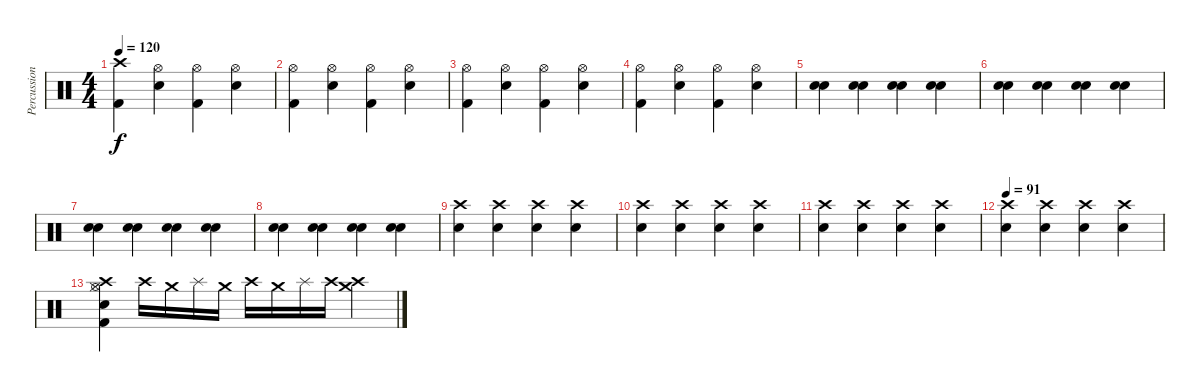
\track ("Percussion" "Percussion") {instrument percussion}
\staff {score}
\articulation defaults
\ts (4 4)
\tempo 120
\clef neutral
\ks c
("Crash high (hit)" "Kick (hit) 2").4{dy f} ("Hi-Hat (open)" "Snare (hit) 2").4 ("Hi-Hat (open)" "Kick (hit) 2").4 ("Hi-Hat (open)" "Snare (hit) 2").4 |
("Hi-Hat (open)" "Kick (hit) 2").4 ("Hi-Hat (open)" "Snare (hit) 2").4 ("Hi-Hat (open)" "Kick (hit) 2").4 ("Hi-Hat (open)" "Snare (hit) 2").4 |
("Hi-Hat (open)" "Kick (hit) 2").4 ("Hi-Hat (open)" "Snare (hit) 2").4 ("Hi-Hat (open)" "Kick (hit) 2").4 ("Hi-Hat (open)" "Snare (hit) 2").4 |
("Hi-Hat (open)" "Kick (hit) 2").4 ("Hi-Hat (open)" "Snare (hit) 2").4 ("Hi-Hat (open)" "Kick (hit) 2").4 ("Hi-Hat (open)" "Snare (hit) 2").4 |
("Snare (hit) 2" "Snare (hit) 2").4 ("Snare (hit) 2" "Snare (hit) 2").4 ("Snare (hit) 2" "Snare (hit) 2").4 ("Snare (hit) 2" "Snare (hit) 2").4 |
("Snare (hit) 2" "Snare (hit) 2").4 ("Snare (hit) 2" "Snare (hit) 2").4 ("Snare (hit) 2" "Snare (hit) 2").4 ("Snare (hit) 2" "Snare (hit) 2").4 |
("Snare (hit) 2" "Snare (hit) 2").4 ("Snare (hit) 2" "Snare (hit) 2").4 ("Snare (hit) 2" "Snare (hit) 2").4 ("Snare (hit) 2" "Snare (hit) 2").4 |
("Snare (hit) 2" "Snare (hit) 2").4 ("Snare (hit) 2" "Snare (hit) 2").4 ("Snare (hit) 2" "Snare (hit) 2").4 ("Snare (hit) 2" "Snare (hit) 2").4 |
("Crash high (hit)" "Snare (hit) 2").4 ("Crash high (hit)" "Snare (hit) 2").4 ("Crash high (hit)" "Snare (hit) 2").4 ("Crash high (hit)" "Snare (hit) 2").4 |
("Crash high (hit)" "Snare (hit) 2").4 ("Crash high (hit)" "Snare (hit) 2").4 ("Crash high (hit)" "Snare (hit) 2").4 ("Crash high (hit)" "Snare (hit) 2").4 |
("Crash high (hit)" "Snare (hit) 2").4 ("Crash high (hit)" "Snare (hit) 2").4 ("Crash high (hit)" "Snare (hit) 2").4 ("Crash high (hit)" "Snare (hit) 2").4 |
\tempo 91
("Crash high (hit)" "Snare (hit) 2").4 ("Crash high (hit)" "Snare (hit) 2").4 ("Crash high (hit)" "Snare (hit) 2").4 ("Crash high (hit)" "Snare (hit) 2").4 |
("Kick (hit) 2" "Snare (hit) 2" "Hi-Hat (open)" "Hi-Hat (closed)" "Crash high (hit)").4 "Crash high (hit)".16 "Crash medium (hit)".16 "Splash (hit)".16 "Crash medium (hit)".16 "Crash high (hit)".16 "Crash medium (hit)".16 "Splash (hit)".16 "Crash high (hit)".16 ("Crash high (hit)" "Crash medium (hit)").4
